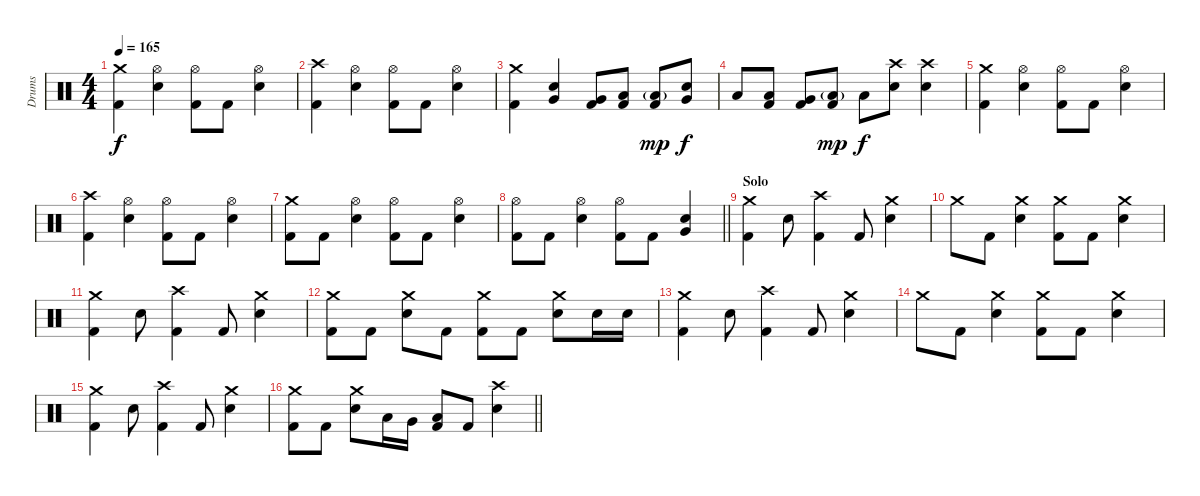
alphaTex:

\track ("Drums" "Drums") {instrument percussion}
\staff {score}
\articulation defaults
\ts (4 4)
\tempo 165
\clef neutral
\ks c
("Crash medium (hit)" "Kick (hit) 2").4{dy f} ("Hi-Hat (open)" "Electric Snare (hit)").4 ("Hi-Hat (open)" "Kick (hit) 2").8 "Kick (hit) 2".8 ("Hi-Hat (open)" "Electric Snare (hit)").4 |
("Crash high (hit)" "Kick (hit) 2").4 ("Hi-Hat (open)" "Electric Snare (hit)").4 ("Hi-Hat (open)" "Kick (hit) 2").8 "Kick (hit) 2".8 ("Hi-Hat (open)" "Electric Snare (hit)").4 |
("Crash medium (hit)" "Kick (hit) 2").4 ("Very Low Tom (hit)" "Electric Snare (hit)").4 ("Very Low Tom (hit)" "Kick (hit) 2").8 ("Low Floor Tom (hit)" "Kick (hit) 2").8 ("Low Floor Tom (hit)"{g} "Kick (hit) 2").8{dy mp} ("Very Low Tom (hit)" "Electric Snare (hit)").8{dy f} |
"Low Floor Tom (hit)".8 ("Low Floor Tom (hit)" "Kick (hit) 2").8 ("Very Low Tom (hit)" "Kick (hit) 2").8 ("Low Floor Tom (hit)"{g} "Kick (hit) 2").8{dy mp} "Low Floor Tom (hit)".8{dy f} ("Crash high (hit)" "Electric Snare (hit)").8 ("Crash high (hit)" "Electric Snare (hit)").4 |
("Crash medium (hit)" "Kick (hit) 2").4 ("Hi-Hat (open)" "Electric Snare (hit)").4 ("Hi-Hat (open)" "Kick (hit) 2").8 "Kick (hit) 2".8 ("Hi-Hat (open)" "Electric Snare (hit)").4 |
("Crash high (hit)" "Kick (hit) 2").4 ("Hi-Hat (open)" "Electric Snare (hit)").4 ("Hi-Hat (open)" "Kick (hit) 2").8 "Kick (hit) 2".8 ("Hi-Hat (open)" "Electric Snare (hit)").4 |
("Crash medium (hit)" "Kick (hit) 2").8 "Kick (hit) 2".8 ("Hi-Hat (open)" "Electric Snare (hit)").4 ("Hi-Hat (open)" "Kick (hit) 2").8 "Kick (hit) 2".8 ("Hi-Hat (open)" "Electric Snare (hit)").4 |
\barLineRight lightlight
("Hi-Hat (open)" "Kick (hit) 2").8 "Kick (hit) 2".8 ("Hi-Hat (open)" "Electric Snare (hit)").4 ("Hi-Hat (open)" "Kick (hit) 2").8 "Kick (hit) 2".8 ("Very Low Tom (hit)" "Electric Snare (hit)").4 |
\section ("" "Solo")
("Crash medium (hit)" "Kick (hit) 2").4 "Electric Snare (hit)".8 ("Crash high (hit)" "Kick (hit) 2").4 "Kick (hit) 2".8 ("Crash medium (hit)" "Electric Snare (hit)").4 |
"Crash medium (hit)".8 "Kick (hit) 2".8 ("Crash medium (hit)" "Electric Snare (hit)").4 ("Crash medium (hit)" "Kick (hit) 2").8 "Kick (hit) 2".8 ("Crash medium (hit)" "Electric Snare (hit)").4 |
("Crash medium (hit)" "Kick (hit) 2").4 "Electric Snare (hit)".8 ("Crash high (hit)" "Kick (hit) 2").4 "Kick (hit) 2".8 ("Crash medium (hit)" "Electric Snare (hit)").4 |
("Crash medium (hit)" "Kick (hit) 2").8 "Kick (hit) 2".8 ("Crash medium (hit)" "Electric Snare (hit)").8 "Kick (hit) 2".8 ("Crash medium (hit)" "Kick (hit) 2").8 "Kick (hit) 2".8 ("Crash medium (hit)" "Electric Snare (hit)").8 "Electric Snare (hit)".16 "Electric Snare (hit)".16 |
("Crash medium (hit)" "Kick (hit) 2").4 "Electric Snare (hit)".8 ("Crash high (hit)" "Kick (hit) 2").4 "Kick (hit) 2".8 ("Crash medium (hit)" "Electric Snare (hit)").4 |
"Crash medium (hit)".8 "Kick (hit) 2".8 ("Crash medium (hit)" "Electric Snare (hit)").4 ("Crash medium (hit)" "Kick (hit) 2").8 "Kick (hit) 2".8 ("Crash medium (hit)" "Electric Snare (hit)").4 |
("Crash medium (hit)" "Kick (hit) 2").4 "Electric Snare (hit)".8 ("Crash high (hit)" "Kick (hit) 2").4 "Kick (hit) 2".8 ("Crash medium (hit)" "Electric Snare (hit)").4 |
\barLineRight lightlight
("Crash medium (hit)" "Kick (hit) 2").8 "Kick (hit) 2".8 ("Crash medium (hit)" "Electric Snare (hit)").8 "Low Tom (hit)".16 "Very Low Tom (hit)".16 ("Low Floor Tom (hit)" "Kick (hit) 2").8 "Kick (hit) 2".8 ("Crash high (hit)" "Electric Snare (hit)").4
